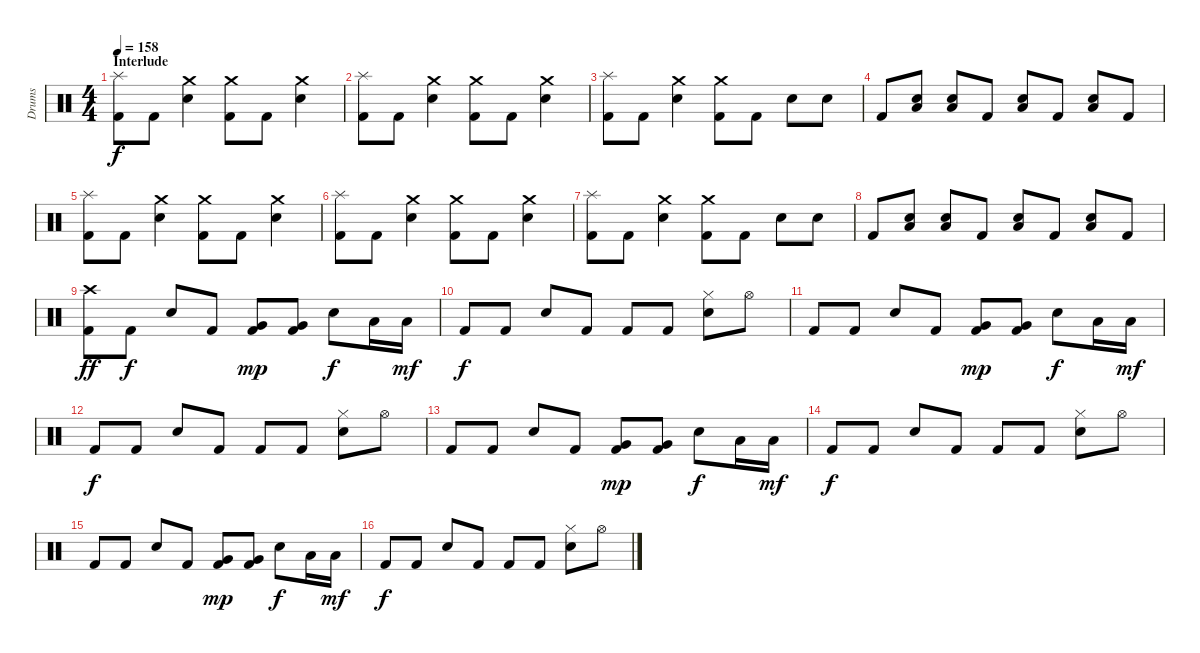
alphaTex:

\track ("Drums" "Drums") {instrument percussion}
\staff {score}
\articulation defaults
\ts (4 4)
\section ("" "Interlude")
\tempo 158
\clef neutral
\ks c
("Splash (hit)" "Kick (hit) 2").8{dy f} "Kick (hit) 2".8 ("Crash medium (hit)" "Electric Snare (hit)").4 ("Crash medium (hit)" "Kick (hit) 2").8 "Kick (hit) 2".8 ("Crash medium (hit)" "Electric Snare (hit)").4 |
("Splash (hit)" "Kick (hit) 2").8 "Kick (hit) 2".8 ("Crash medium (hit)" "Electric Snare (hit)").4 ("Crash medium (hit)" "Kick (hit) 2").8 "Kick (hit) 2".8 ("Crash medium (hit)" "Electric Snare (hit)").4 |
("Splash (hit)" "Kick (hit) 2").8 "Kick (hit) 2".8 ("Crash medium (hit)" "Electric Snare (hit)").4 ("Crash medium (hit)" "Kick (hit) 2").8 "Kick (hit) 2".8 "Electric Snare (hit)".8 "Electric Snare (hit)".8 |
"Kick (hit) 2".8 ("Low Tom (hit)" "Electric Snare (hit)").8 ("Low Tom (hit)" "Electric Snare (hit)").8 "Kick (hit) 2".8 ("Low Tom (hit)" "Electric Snare (hit)").8 "Kick (hit) 2".8 ("Low Tom (hit)" "Electric Snare (hit)").8 "Kick (hit) 2".8 |
("Splash (hit)" "Kick (hit) 2").8 "Kick (hit) 2".8 ("Crash medium (hit)" "Electric Snare (hit)").4 ("Crash medium (hit)" "Kick (hit) 2").8 "Kick (hit) 2".8 ("Crash medium (hit)" "Electric Snare (hit)").4 |
("Splash (hit)" "Kick (hit) 2").8 "Kick (hit) 2".8 ("Crash medium (hit)" "Electric Snare (hit)").4 ("Crash medium (hit)" "Kick (hit) 2").8 "Kick (hit) 2".8 ("Crash medium (hit)" "Electric Snare (hit)").4 |
("Splash (hit)" "Kick (hit) 2").8 "Kick (hit) 2".8 ("Crash medium (hit)" "Electric Snare (hit)").4 ("Crash medium (hit)" "Kick (hit) 2").8 "Kick (hit) 2".8 "Electric Snare (hit)".8 "Electric Snare (hit)".8 |
"Kick (hit) 2".8 ("Low Tom (hit)" "Electric Snare (hit)").8 ("Low Tom (hit)" "Electric Snare (hit)").8 "Kick (hit) 2".8 ("Low Tom (hit)" "Electric Snare (hit)").8 "Kick (hit) 2".8 ("Low Tom (hit)" "Electric Snare (hit)").8 "Kick (hit) 2".8 |
("Crash high (hit)" "Kick (hit) 2").8{dy ff} "Kick (hit) 2".8{dy f} "Electric Snare (hit)".8 "Kick (hit) 2".8 ("Very Low Tom (hit)" "Kick (hit) 2").8{dy mp} ("Very Low Tom (hit)" "Kick (hit) 2").8 "Electric Snare (hit)".8{dy f} "Low Tom (hit)".16 "Low Tom (hit)".16{dy mf} |
"Kick (hit) 2".8{dy f} "Kick (hit) 2".8 "Electric Snare (hit)".8 "Kick (hit) 2".8 "Kick (hit) 2".8 "Kick (hit) 2".8 ("Hi-Hat (closed)" "Electric Snare (hit)").8 "Hi-Hat (open)".8 |
"Kick (hit) 2".8 "Kick (hit) 2".8 "Electric Snare (hit)".8 "Kick (hit) 2".8 ("Very Low Tom (hit)" "Kick (hit) 2").8{dy mp} ("Very Low Tom (hit)" "Kick (hit) 2").8 "Electric Snare (hit)".8{dy f} "Low Tom (hit)".16 "Low Tom (hit)".16{dy mf} |
"Kick (hit) 2".8{dy f} "Kick (hit) 2".8 "Electric Snare (hit)".8 "Kick (hit) 2".8 "Kick (hit) 2".8 "Kick (hit) 2".8 ("Hi-Hat (closed)" "Electric Snare (hit)").8 "Hi-Hat (open)".8 |
"Kick (hit) 2".8 "Kick (hit) 2".8 "Electric Snare (hit)".8 "Kick (hit) 2".8 ("Very Low Tom (hit)" "Kick (hit) 2").8{dy mp} ("Very Low Tom (hit)" "Kick (hit) 2").8 "Electric Snare (hit)".8{dy f} "Low Tom (hit)".16 "Low Tom (hit)".16{dy mf} |
"Kick (hit) 2".8{dy f} "Kick (hit) 2".8 "Electric Snare (hit)".8 "Kick (hit) 2".8 "Kick (hit) 2".8 "Kick (hit) 2".8 ("Hi-Hat (closed)" "Electric Snare (hit)").8 "Hi-Hat (open)".8 |
"Kick (hit) 2".8 "Kick (hit) 2".8 "Electric Snare (hit)".8 "Kick (hit) 2".8 ("Very Low Tom (hit)" "Kick (hit) 2").8{dy mp} ("Very Low Tom (hit)" "Kick (hit) 2").8 "Electric Snare (hit)".8{dy f} "Low Tom (hit)".16 "Low Tom (hit)".16{dy mf} |
"Kick (hit) 2".8{dy f} "Kick (hit) 2".8 "Electric Snare (hit)".8 "Kick (hit) 2".8 "Kick (hit) 2".8 "Kick (hit) 2".8 ("Hi-Hat (closed)" "Electric Snare (hit)").8 "Hi-Hat (open)".8
